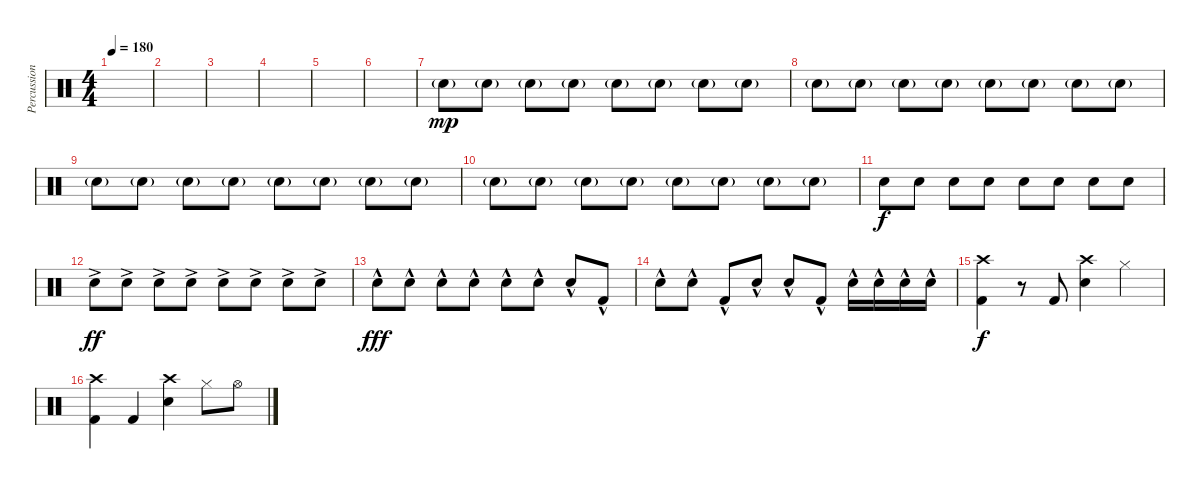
\track ("Percussion" "Percussion") {instrument percussion}
\staff {score}
\articulation defaults
\ts (4 4)
\tempo 180
\clef neutral
\ks c
|
|
|
|
|
|
"Electric Snare (hit)"{g}.8{dy mp} "Electric Snare (hit)"{g}.8 "Electric Snare (hit)"{g}.8 "Electric Snare (hit)"{g}.8 "Electric Snare (hit)"{g}.8 "Electric Snare (hit)"{g}.8 "Electric Snare (hit)"{g}.8 "Electric Snare (hit)"{g}.8 |
"Electric Snare (hit)"{g}.8 "Electric Snare (hit)"{g}.8 "Electric Snare (hit)"{g}.8 "Electric Snare (hit)"{g}.8 "Electric Snare (hit)"{g}.8 "Electric Snare (hit)"{g}.8 "Electric Snare (hit)"{g}.8 "Electric Snare (hit)"{g}.8 |
"Electric Snare (hit)"{g}.8 "Electric Snare (hit)"{g}.8 "Electric Snare (hit)"{g}.8 "Electric Snare (hit)"{g}.8 "Electric Snare (hit)"{g}.8 "Electric Snare (hit)"{g}.8 "Electric Snare (hit)"{g}.8 "Electric Snare (hit)"{g}.8 |
"Electric Snare (hit)"{g}.8 "Electric Snare (hit)"{g}.8 "Electric Snare (hit)"{g}.8 "Electric Snare (hit)"{g}.8 "Electric Snare (hit)"{g}.8 "Electric Snare (hit)"{g}.8 "Electric Snare (hit)"{g}.8 "Electric Snare (hit)"{g}.8 |
"Electric Snare (hit)".8{dy f} "Electric Snare (hit)".8 "Electric Snare (hit)".8 "Electric Snare (hit)".8 "Electric Snare (hit)".8 "Electric Snare (hit)".8 "Electric Snare (hit)".8 "Electric Snare (hit)".8 |
"Electric Snare (hit)"{ac}.8{dy ff} "Electric Snare (hit)"{ac}.8 "Electric Snare (hit)"{ac}.8 "Electric Snare (hit)"{ac}.8 "Electric Snare (hit)"{ac}.8 "Electric Snare (hit)"{ac}.8 "Electric Snare (hit)"{ac}.8 "Electric Snare (hit)"{ac}.8 |
"Electric Snare (hit)"{hac}.8{dy fff} "Electric Snare (hit)"{hac}.8 "Electric Snare (hit)"{hac}.8 "Electric Snare (hit)"{hac}.8 "Electric Snare (hit)"{hac}.8 "Electric Snare (hit)"{hac}.8 "Electric Snare (hit)"{hac}.8 "Kick (hit) 2"{hac}.8 |
"Electric Snare (hit)"{hac}.8 "Electric Snare (hit)"{hac}.8 "Kick (hit) 2"{hac}.8 "Electric Snare (hit)"{hac}.8 "Electric Snare (hit)"{hac}.8 "Kick (hit) 2"{hac}.8 "Electric Snare (hit)"{hac}.16 "Electric Snare (hit)"{hac}.16 "Electric Snare (hit)"{hac}.16 "Electric Snare (hit)"{hac}.16 |
("Crash high (hit)" "Kick (hit) 2").4{dy f} r.8 "Kick (hit) 2".8 ("Crash high (hit)" "Electric Snare (hit)").4 "Hi-Hat (closed)".4 |
("Crash high (hit)" "Kick (hit) 2").4 "Kick (hit) 2".4 ("Crash high (hit)" "Electric Snare (hit)").4 "Hi-Hat (closed)".8 "Hi-Hat (open)".8
